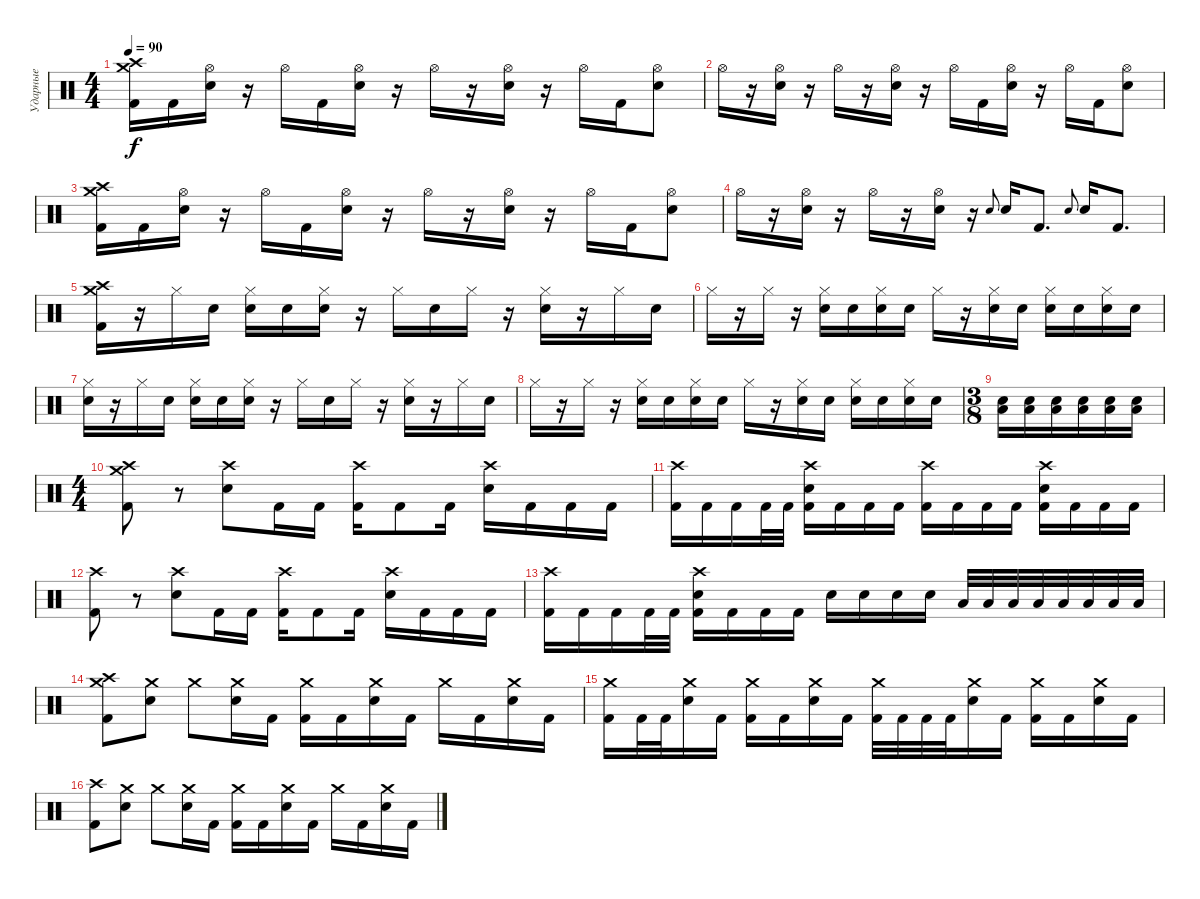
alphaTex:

\track ("Ударные" "Ударные") {instrument percussion}
\staff {score}
\articulation defaults
\ts (4 4)
\tempo 90
\clef neutral
\ks c
("Crash medium (hit)" "Crash high (hit)" "Kick (hit) 2").16{dy f} "Kick (hit) 2".16 ("Hi-Hat (open)" "Electric Snare (hit)").16 r.16 "Hi-Hat (open)".16 "Kick (hit) 2".16 ("Hi-Hat (open)" "Electric Snare (hit)").16 r.16 "Hi-Hat (open)".16 r.16 ("Hi-Hat (open)" "Electric Snare (hit)").16 r.16 "Hi-Hat (open)".16 "Kick (hit) 2".16 ("Hi-Hat (open)" "Electric Snare (hit)").8 |
"Hi-Hat (open)".16 r.16 ("Hi-Hat (open)" "Electric Snare (hit)").16 r.16 "Hi-Hat (open)".16 r.16 ("Hi-Hat (open)" "Electric Snare (hit)").16 r.16 "Hi-Hat (open)".16 "Kick (hit) 2".16 ("Hi-Hat (open)" "Electric Snare (hit)").16 r.16 "Hi-Hat (open)".16 "Kick (hit) 2".16 ("Hi-Hat (open)" "Electric Snare (hit)").8 |
("Crash medium (hit)" "Crash high (hit)" "Kick (hit) 2").16 "Kick (hit) 2".16 ("Hi-Hat (open)" "Electric Snare (hit)").16 r.16 "Hi-Hat (open)".16 "Kick (hit) 2".16 ("Hi-Hat (open)" "Electric Snare (hit)").16 r.16 "Hi-Hat (open)".16 r.16 ("Hi-Hat (open)" "Electric Snare (hit)").16 r.16 "Hi-Hat (open)".16 "Kick (hit) 2".16 ("Hi-Hat (open)" "Electric Snare (hit)").8 |
"Hi-Hat (open)".16 r.16 ("Hi-Hat (open)" "Electric Snare (hit)").16 r.16 "Hi-Hat (open)".16 r.16 ("Hi-Hat (open)" "Electric Snare (hit)").16 r.16 "Electric Snare (hit)".8{gr onbeat} "Electric Snare (hit)".16 "Kick (hit) 2".8{d} "Electric Snare (hit)".8{gr onbeat} "Electric Snare (hit)".16 "Kick (hit) 2".8{d} |
("Crash medium (hit)" "Crash high (hit)" "Kick (hit) 2").16 r.16 "Hi-Hat (closed)".16 "Electric Snare (hit)".16 ("Hi-Hat (closed)" "Electric Snare (hit)").16 "Electric Snare (hit)".16 ("Hi-Hat (closed)" "Electric Snare (hit)").16 r.16 "Hi-Hat (closed)".16 "Electric Snare (hit)".16 "Hi-Hat (closed)".16 r.16 ("Hi-Hat (closed)" "Electric Snare (hit)").16 r.16 "Hi-Hat (closed)".16 "Electric Snare (hit)".16 |
"Hi-Hat (closed)".16 r.16 "Hi-Hat (closed)".16 r.16 ("Hi-Hat (closed)" "Electric Snare (hit)").16 "Electric Snare (hit)".16 ("Hi-Hat (closed)" "Electric Snare (hit)").16 "Electric Snare (hit)".16 "Hi-Hat (closed)".16 r.16 ("Hi-Hat (closed)" "Electric Snare (hit)").16 "Electric Snare (hit)".16 ("Hi-Hat (closed)" "Electric Snare (hit)").16 "Electric Snare (hit)".16 ("Hi-Hat (closed)" "Electric Snare (hit)").16 "Electric Snare (hit)".16 |
("Hi-Hat (closed)" "Electric Snare (hit)").16 r.16 "Hi-Hat (closed)".16 "Electric Snare (hit)".16 ("Hi-Hat (closed)" "Electric Snare (hit)").16 "Electric Snare (hit)".16 ("Hi-Hat (closed)" "Electric Snare (hit)").16 r.16 "Hi-Hat (closed)".16 "Electric Snare (hit)".16 "Hi-Hat (closed)".16 r.16 ("Hi-Hat (closed)" "Electric Snare (hit)").16 r.16 "Hi-Hat (closed)".16 "Electric Snare (hit)".16 |
"Hi-Hat (closed)".16 r.16 "Hi-Hat (closed)".16 r.16 ("Hi-Hat (closed)" "Electric Snare (hit)").16 "Electric Snare (hit)".16 ("Hi-Hat (closed)" "Electric Snare (hit)").16 "Electric Snare (hit)".16 "Hi-Hat (closed)".16 r.16 ("Hi-Hat (closed)" "Electric Snare (hit)").16 "Electric Snare (hit)".16 ("Hi-Hat (closed)" "Electric Snare (hit)").16 "Electric Snare (hit)".16 ("Hi-Hat (closed)" "Electric Snare (hit)").16 "Electric Snare (hit)".16 |
\ts (3 8)
("Low Floor Tom (hit)" "Electric Snare (hit)").16 ("Low Floor Tom (hit)" "Electric Snare (hit)").16 ("Low Floor Tom (hit)" "Electric Snare (hit)").16 ("Low Floor Tom (hit)" "Electric Snare (hit)").16 ("Low Floor Tom (hit)" "Electric Snare (hit)").16 ("Low Floor Tom (hit)" "Electric Snare (hit)").16 |
\ts (4 4)
("Crash medium (hit)" "Crash high (hit)" "Kick (hit) 2").8 r.8 ("Crash high (hit)" "Electric Snare (hit)").8 "Kick (hit) 2".16 "Kick (hit) 2".16 ("Crash high (hit)" "Kick (hit) 2").16 "Kick (hit) 2".8 "Kick (hit) 2".16 ("Crash high (hit)" "Electric Snare (hit)").16 "Kick (hit) 2".16 "Kick (hit) 2".16 "Kick (hit) 2".16 |
("Crash high (hit)" "Kick (hit) 2").16 "Kick (hit) 2".16 "Kick (hit) 2".16 "Kick (hit) 2".32 "Kick (hit) 2".32 ("Crash high (hit)" "Electric Snare (hit)" "Kick (hit) 2").16 "Kick (hit) 2".16 "Kick (hit) 2".16 "Kick (hit) 2".16 ("Crash high (hit)" "Kick (hit) 2").16 "Kick (hit) 2".16 "Kick (hit) 2".16 "Kick (hit) 2".16 ("Crash high (hit)" "Electric Snare (hit)" "Kick (hit) 2").16 "Kick (hit) 2".16 "Kick (hit) 2".16 "Kick (hit) 2".16 |
("Crash high (hit)" "Kick (hit) 2").8 r.8 ("Crash high (hit)" "Electric Snare (hit)").8 "Kick (hit) 2".16 "Kick (hit) 2".16 ("Crash high (hit)" "Kick (hit) 2").16 "Kick (hit) 2".8 "Kick (hit) 2".16 ("Crash high (hit)" "Electric Snare (hit)").16 "Kick (hit) 2".16 "Kick (hit) 2".16 "Kick (hit) 2".16 |
("Crash high (hit)" "Kick (hit) 2").16 "Kick (hit) 2".16 "Kick (hit) 2".16 "Kick (hit) 2".32 "Kick (hit) 2".32 ("Crash high (hit)" "Electric Snare (hit)" "Kick (hit) 2").16 "Kick (hit) 2".16 "Kick (hit) 2".16 "Kick (hit) 2".16 "Electric Snare (hit)".16 "Electric Snare (hit)".16 "Electric Snare (hit)".16 "Electric Snare (hit)".16 "Low Tom (hit)".32 "Low Tom (hit)".32 "Low Floor Tom (hit)".32 "Low Floor Tom (hit)".32 "Low Tom (hit)".32 "Low Tom (hit)".32 "Low Floor Tom (hit)".32 "Low Floor Tom (hit)".32 |
("Crash medium (hit)" "Crash high (hit)" "Kick (hit) 2").8 ("Crash medium (hit)" "Electric Snare (hit)").8 "Crash medium (hit)".8 ("Crash medium (hit)" "Electric Snare (hit)").16 "Kick (hit) 2".16 ("Crash medium (hit)" "Kick (hit) 2").16 "Kick (hit) 2".16 ("Crash medium (hit)" "Electric Snare (hit)").16 "Kick (hit) 2".16 "Crash medium (hit)".16 "Kick (hit) 2".16 ("Crash medium (hit)" "Electric Snare (hit)").16 "Kick (hit) 2".16 |
("Crash medium (hit)" "Kick (hit) 2").16 "Kick (hit) 2".32 "Kick (hit) 2".32 ("Crash medium (hit)" "Electric Snare (hit)").16 "Kick (hit) 2".16 ("Crash medium (hit)" "Kick (hit) 2").16 "Kick (hit) 2".16 ("Crash medium (hit)" "Electric Snare (hit)").16 "Kick (hit) 2".16 ("Crash medium (hit)" "Kick (hit) 2").32 "Kick (hit) 2".32 "Kick (hit) 2".32 "Kick (hit) 2".32 ("Crash medium (hit)" "Electric Snare (hit)").16 "Kick (hit) 2".16 ("Crash medium (hit)" "Kick (hit) 2").16 "Kick (hit) 2".16 ("Crash medium (hit)" "Electric Snare (hit)").16 "Kick (hit) 2".16 |
("Crash high (hit)" "Kick (hit) 2").8 ("Crash medium (hit)" "Electric Snare (hit)").8 "Crash medium (hit)".8 ("Crash medium (hit)" "Electric Snare (hit)").16 "Kick (hit) 2".16 ("Crash medium (hit)" "Kick (hit) 2").16 "Kick (hit) 2".16 ("Crash medium (hit)" "Electric Snare (hit)").16 "Kick (hit) 2".16 "Crash medium (hit)".16 "Kick (hit) 2".16 ("Crash medium (hit)" "Electric Snare (hit)").16 "Kick (hit) 2".16
